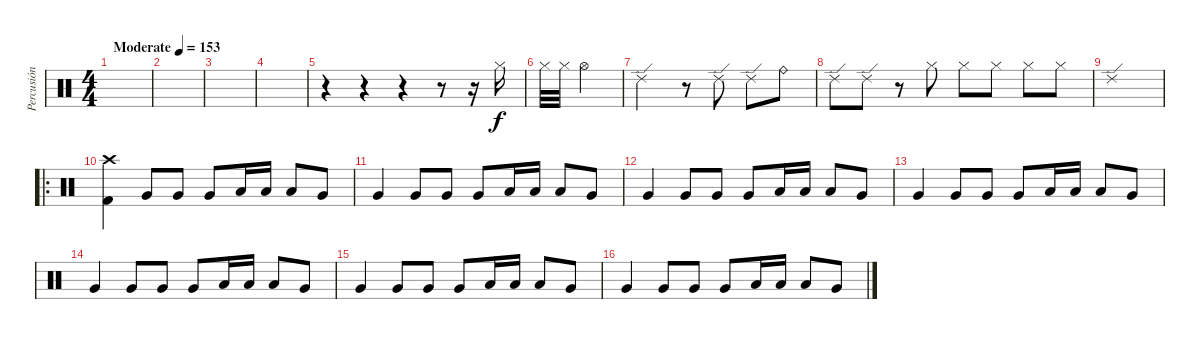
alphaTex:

\track ("Percusión" "Percusión") {instrument percussion}
\staff {score}
\articulation defaults
\ts (4 4)
\tempo (153 "Moderate")
\clef neutral
\ks c
|
|
|
|
r.4 r.4 r.4 r.8 r.16 "Hi-Hat (closed)".16 |
"Hi-Hat (closed)".32 "Hi-Hat (closed)".32 "Hi-Hat (open)".4 |
"Ride (edge) 2".2 r.8 "Ride (edge) 2".8 "Ride (edge) 2".8 "Ride (bell)".8 |
"Ride (edge) 2".8 "Ride (edge) 2".8 r.8 "Hi-Hat (closed)".8 "Hi-Hat (closed)".8 "Hi-Hat (closed)".8 "Hi-Hat (closed)".8 "Hi-Hat (closed)".8 |
"Ride (edge) 2".1 |
\ro
("Crash high (hit)" "Kick (hit) 2").4 "Very Low Tom (hit)".8 "Very Low Tom (hit)".8 "Very Low Tom (hit)".8 "Low Tom (hit)".16 "Low Tom (hit)".16 "Low Tom (hit)".8 "Very Low Tom (hit)".8 |
"Very Low Tom (hit)".4 "Very Low Tom (hit)".8 "Very Low Tom (hit)".8 "Very Low Tom (hit)".8 "Low Tom (hit)".16 "Low Tom (hit)".16 "Low Tom (hit)".8 "Very Low Tom (hit)".8 |
"Very Low Tom (hit)".4 "Very Low Tom (hit)".8 "Very Low Tom (hit)".8 "Very Low Tom (hit)".8 "Low Tom (hit)".16 "Low Tom (hit)".16 "Low Tom (hit)".8 "Very Low Tom (hit)".8 |
"Very Low Tom (hit)".4 "Very Low Tom (hit)".8 "Very Low Tom (hit)".8 "Very Low Tom (hit)".8 "Low Tom (hit)".16 "Low Tom (hit)".16 "Low Tom (hit)".8 "Very Low Tom (hit)".8 |
"Very Low Tom (hit)".4 "Very Low Tom (hit)".8 "Very Low Tom (hit)".8 "Very Low Tom (hit)".8 "Low Tom (hit)".16 "Low Tom (hit)".16 "Low Tom (hit)".8 "Very Low Tom (hit)".8 |
"Very Low Tom (hit)".4 "Very Low Tom (hit)".8 "Very Low Tom (hit)".8 "Very Low Tom (hit)".8 "Low Tom (hit)".16 "Low Tom (hit)".16 "Low Tom (hit)".8 "Very Low Tom (hit)".8 |
"Very Low Tom (hit)".4 "Very Low Tom (hit)".8 "Very Low Tom (hit)".8 "Very Low Tom (hit)".8 "Low Tom (hit)".16 "Low Tom (hit)".16 "Low Tom (hit)".8 "Very Low Tom (hit)".8
